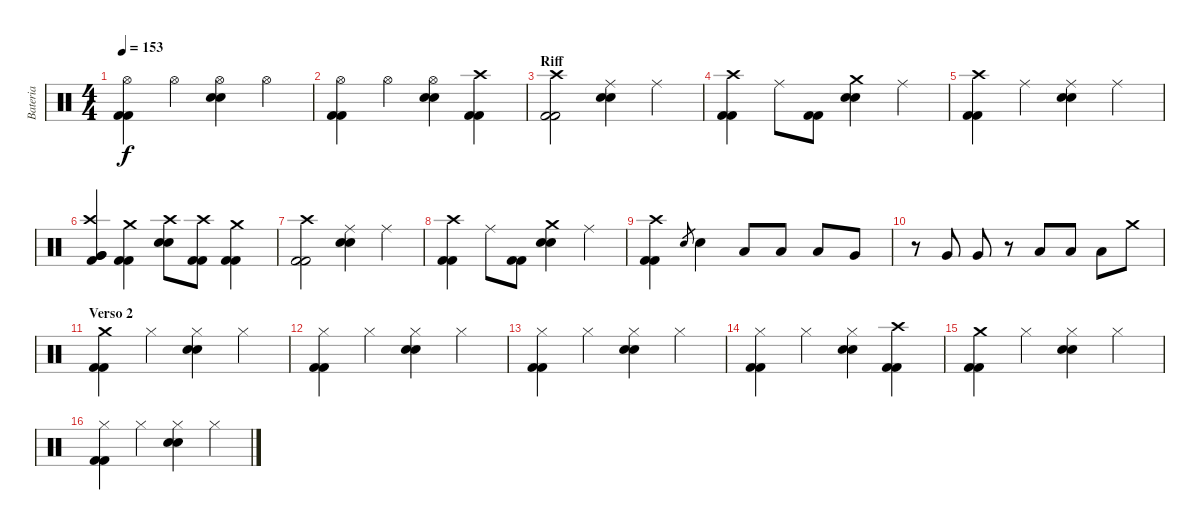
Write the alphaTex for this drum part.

\track ("Bateria" "Bateria") {instrument percussion}
\staff {score}
\articulation defaults
\ts (4 4)
\tempo 153
\clef neutral
\ks c
("Hi-Hat (open)" "Kick (hit) 2" "Kick (hit) 2").4{dy f} "Hi-Hat (open)".4 ("Hi-Hat (open)" "Snare (hit) 2" "Snare (hit) 2").4 "Hi-Hat (open)".4 |
("Hi-Hat (open)" "Kick (hit) 2" "Kick (hit) 2").4 "Hi-Hat (open)".4 ("Hi-Hat (open)" "Snare (hit) 2" "Snare (hit) 2").4 ("Crash high (hit)" "Kick (hit) 2" "Kick (hit) 2").4 |
\section ("" "Riff")
("Crash high (hit)" "Kick (hit) 2" "Kick (hit) 2").2 ("Ride (middle)" "Snare (hit) 2" "Snare (hit) 2").4 "Ride (middle)".4 |
("Crash high (hit)" "Kick (hit) 2" "Kick (hit) 2").4 "Ride (middle)".8 ("Kick (hit) 2" "Kick (hit) 2").8 ("Crash medium (hit)" "Snare (hit) 2" "Snare (hit) 2").4 "Ride (middle)".4 |
("Crash high (hit)" "Kick (hit) 2" "Kick (hit) 2").4 "Ride (middle)".4 ("Ride (middle)" "Snare (hit) 2" "Snare (hit) 2").4 "Ride (middle)".4 |
("Crash high (hit)" "Very Low Tom (hit)" "Very Low Tom (hit)" "Kick (hit) 2").4 ("Crash medium (hit)" "Kick (hit) 2" "Kick (hit) 2").4 ("Crash high (hit)" "Snare (hit) 2" "Snare (hit) 2").8 ("Crash high (hit)" "Kick (hit) 2" "Kick (hit) 2").8 ("Crash medium (hit)" "Kick (hit) 2" "Kick (hit) 2").4 |
("Crash high (hit)" "Kick (hit) 2" "Kick (hit) 2").2 ("Ride (middle)" "Snare (hit) 2" "Snare (hit) 2").4 "Ride (middle)".4 |
("Crash high (hit)" "Kick (hit) 2" "Kick (hit) 2").4 "Ride (middle)".8 ("Kick (hit) 2" "Kick (hit) 2").8 ("Crash medium (hit)" "Snare (hit) 2" "Snare (hit) 2").4 "Ride (middle)".4 |
("Crash high (hit)" "Kick (hit) 2" "Kick (hit) 2").4 "Snare (hit) 2".8{gr} "Snare (hit) 2".4 "Low Tom (hit)".8 "Low Tom (hit)".8 "Low Tom (hit)".8 "Very Low Tom (hit)".8 |
r.8 "Very Low Tom (hit)".8 "Very Low Tom (hit)".8 r.8 "Low Floor Tom (hit)".8 "Low Floor Tom (hit)".8 "Low Floor Tom (hit)".8 "Crash medium (hit)".8 |
\section ("" "Verso 2")
("Crash medium (hit)" "Kick (hit) 2" "Kick (hit) 2").4 "Hi-Hat (closed)".4 ("Hi-Hat (closed)" "Snare (hit) 2" "Snare (hit) 2").4 "Hi-Hat (closed)".4 |
("Hi-Hat (closed)" "Kick (hit) 2" "Kick (hit) 2").4 "Hi-Hat (closed)".4 ("Hi-Hat (closed)" "Snare (hit) 2" "Snare (hit) 2").4 "Hi-Hat (closed)".4 |
("Hi-Hat (closed)" "Kick (hit) 2" "Kick (hit) 2").4 "Hi-Hat (closed)".4 ("Hi-Hat (closed)" "Snare (hit) 2" "Snare (hit) 2").4 "Hi-Hat (closed)".4 |
("Hi-Hat (closed)" "Kick (hit) 2" "Kick (hit) 2").4 "Hi-Hat (closed)".4 ("Hi-Hat (closed)" "Snare (hit) 2" "Snare (hit) 2").4 ("Crash high (hit)" "Kick (hit) 2" "Kick (hit) 2").4 |
("Crash medium (hit)" "Kick (hit) 2" "Kick (hit) 2").4 "Hi-Hat (closed)".4 ("Hi-Hat (closed)" "Snare (hit) 2" "Snare (hit) 2").4 "Hi-Hat (closed)".4 |
("Hi-Hat (closed)" "Kick (hit) 2" "Kick (hit) 2").4 "Hi-Hat (closed)".4 ("Hi-Hat (closed)" "Snare (hit) 2" "Snare (hit) 2").4 "Hi-Hat (closed)".4
